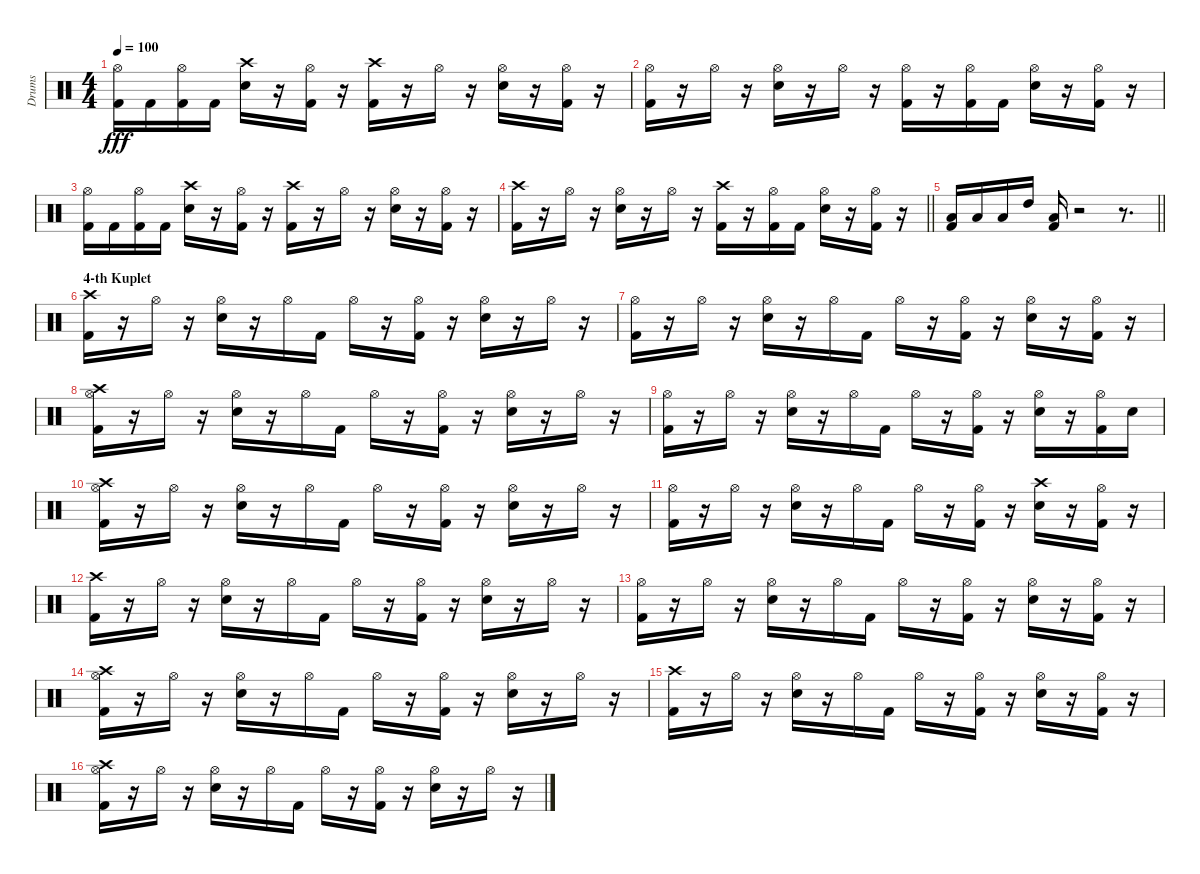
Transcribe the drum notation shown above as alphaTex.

\track ("Drums" "Drums") {instrument percussion}
\staff {score}
\articulation defaults
\ts (4 4)
\tempo 100
\clef neutral
\ks c
("Kick (hit) 2" "Hi-Hat (open)").16{dy fff} "Kick (hit) 2".16 ("Hi-Hat (open)" "Kick (hit) 2").16 "Kick (hit) 2".16 ("Snare (hit) 2" "Crash high (hit)").16 r.16 ("Hi-Hat (open)" "Kick (hit) 2").16 r.16 ("Crash high (hit)" "Kick (hit) 2").16 r.16 "Hi-Hat (open)".16 r.16 ("Hi-Hat (open)" "Snare (hit) 2").16 r.16 ("Hi-Hat (open)" "Kick (hit) 2").16 r.16 |
("Hi-Hat (open)" "Kick (hit) 2").16 r.16 "Hi-Hat (open)".16 r.16 ("Hi-Hat (open)" "Snare (hit) 2").16 r.16 "Hi-Hat (open)".16 r.16 ("Hi-Hat (open)" "Kick (hit) 2").16 r.16 ("Hi-Hat (open)" "Kick (hit) 2").16 "Kick (hit) 2".16 ("Hi-Hat (open)" "Snare (hit) 2").16 r.16 ("Hi-Hat (open)" "Kick (hit) 2").16 r.16 |
("Kick (hit) 2" "Hi-Hat (open)").16 "Kick (hit) 2".16 ("Hi-Hat (open)" "Kick (hit) 2").16 "Kick (hit) 2".16 ("Snare (hit) 2" "Crash high (hit)").16 r.16 ("Hi-Hat (open)" "Kick (hit) 2").16 r.16 ("Crash high (hit)" "Kick (hit) 2").16 r.16 "Hi-Hat (open)".16 r.16 ("Hi-Hat (open)" "Snare (hit) 2").16 r.16 ("Hi-Hat (open)" "Kick (hit) 2").16 r.16 |
\barLineRight lightlight
("Crash high (hit)" "Kick (hit) 2").16 r.16 "Hi-Hat (open)".16 r.16 ("Hi-Hat (open)" "Snare (hit) 2").16 r.16 "Hi-Hat (open)".16 r.16 ("Crash high (hit)" "Kick (hit) 2").16 r.16 ("Hi-Hat (open)" "Kick (hit) 2").16 "Kick (hit) 2".16 ("Hi-Hat (open)" "Snare (hit) 2").16 r.16 ("Hi-Hat (open)" "Kick (hit) 2").16 r.16 |
\barLineRight lightlight
("Kick (hit) 2" "Low Tom (hit)").16 "Low Tom (hit)".16 "Low Tom (hit)".16 "High Tom (hit)".16 ("Low Tom (hit)" "Kick (hit) 2").16 r.2 r.8{d} |
\section ("" "4-th Kuplet")
("Kick (hit) 2" "Crash high (hit)").16 r.16 "Hi-Hat (open)".16 r.16 ("Snare (hit) 2" "Hi-Hat (open)").16 r.16 "Hi-Hat (open)".16 "Kick (hit) 2".16 "Hi-Hat (open)".16 r.16 ("Kick (hit) 2" "Hi-Hat (open)").16 r.16 ("Hi-Hat (open)" "Snare (hit) 2").16 r.16 "Hi-Hat (open)".16 r.16 |
("Kick (hit) 2" "Hi-Hat (open)").16 r.16 "Hi-Hat (open)".16 r.16 ("Snare (hit) 2" "Hi-Hat (open)").16 r.16 "Hi-Hat (open)".16 "Kick (hit) 2".16 "Hi-Hat (open)".16 r.16 ("Kick (hit) 2" "Hi-Hat (open)").16 r.16 ("Snare (hit) 2" "Hi-Hat (open)").16 r.16 ("Hi-Hat (open)" "Kick (hit) 2").16 r.16 |
("Hi-Hat (open)" "Kick (hit) 2" "Crash high (hit)").16 r.16 "Hi-Hat (open)".16 r.16 ("Hi-Hat (open)" "Snare (hit) 2").16 r.16 "Hi-Hat (open)".16 "Kick (hit) 2".16 "Hi-Hat (open)".16 r.16 ("Kick (hit) 2" "Hi-Hat (open)").16 r.16 ("Hi-Hat (open)" "Snare (hit) 2").16 r.16 "Hi-Hat (open)".16 r.16 |
("Hi-Hat (open)" "Kick (hit) 2").16 r.16 "Hi-Hat (open)".16 r.16 ("Hi-Hat (open)" "Snare (hit) 2").16 r.16 "Hi-Hat (open)".16 "Kick (hit) 2".16 "Hi-Hat (open)".16 r.16 ("Kick (hit) 2" "Hi-Hat (open)").16 r.16 ("Hi-Hat (open)" "Snare (hit) 2").16 r.16 ("Hi-Hat (open)" "Kick (hit) 2").16 "Snare (hit) 2".16 |
("Kick (hit) 2" "Crash high (hit)" "Hi-Hat (open)").16 r.16 "Hi-Hat (open)".16 r.16 ("Snare (hit) 2" "Hi-Hat (open)").16 r.16 "Hi-Hat (open)".16 "Kick (hit) 2".16 "Hi-Hat (open)".16 r.16 ("Kick (hit) 2" "Hi-Hat (open)").16 r.16 ("Snare (hit) 2" "Hi-Hat (open)").16 r.16 "Hi-Hat (open)".16 r.16 |
("Kick (hit) 2" "Hi-Hat (open)").16 r.16 "Hi-Hat (open)".16 r.16 ("Snare (hit) 2" "Hi-Hat (open)").16 r.16 "Hi-Hat (open)".16 "Kick (hit) 2".16 "Hi-Hat (open)".16 r.16 ("Kick (hit) 2" "Hi-Hat (open)").16 r.16 ("Snare (hit) 2" "Crash high (hit)").16 r.16 ("Hi-Hat (open)" "Kick (hit) 2").16 r.16 |
("Kick (hit) 2" "Crash high (hit)").16 r.16 "Hi-Hat (open)".16 r.16 ("Snare (hit) 2" "Hi-Hat (open)").16 r.16 "Hi-Hat (open)".16 "Kick (hit) 2".16 "Hi-Hat (open)".16 r.16 ("Kick (hit) 2" "Hi-Hat (open)").16 r.16 ("Hi-Hat (open)" "Snare (hit) 2").16 r.16 "Hi-Hat (open)".16 r.16 |
("Kick (hit) 2" "Hi-Hat (open)").16 r.16 "Hi-Hat (open)".16 r.16 ("Snare (hit) 2" "Hi-Hat (open)").16 r.16 "Hi-Hat (open)".16 "Kick (hit) 2".16 "Hi-Hat (open)".16 r.16 ("Kick (hit) 2" "Hi-Hat (open)").16 r.16 ("Snare (hit) 2" "Hi-Hat (open)").16 r.16 ("Hi-Hat (open)" "Kick (hit) 2").16 r.16 |
("Hi-Hat (open)" "Kick (hit) 2" "Crash high (hit)").16 r.16 "Hi-Hat (open)".16 r.16 ("Hi-Hat (open)" "Snare (hit) 2").16 r.16 "Hi-Hat (open)".16 "Kick (hit) 2".16 "Hi-Hat (open)".16 r.16 ("Kick (hit) 2" "Hi-Hat (open)").16 r.16 ("Hi-Hat (open)" "Snare (hit) 2").16 r.16 "Hi-Hat (open)".16 r.16 |
("Crash high (hit)" "Kick (hit) 2").16 r.16 "Hi-Hat (open)".16 r.16 ("Hi-Hat (open)" "Snare (hit) 2").16 r.16 "Hi-Hat (open)".16 "Kick (hit) 2".16 "Hi-Hat (open)".16 r.16 ("Kick (hit) 2" "Hi-Hat (open)").16 r.16 ("Hi-Hat (open)" "Snare (hit) 2").16 r.16 ("Hi-Hat (open)" "Kick (hit) 2").16 r.16 |
("Kick (hit) 2" "Crash high (hit)" "Hi-Hat (open)").16 r.16 "Hi-Hat (open)".16 r.16 ("Snare (hit) 2" "Hi-Hat (open)").16 r.16 "Hi-Hat (open)".16 "Kick (hit) 2".16 "Hi-Hat (open)".16 r.16 ("Kick (hit) 2" "Hi-Hat (open)").16 r.16 ("Snare (hit) 2" "Hi-Hat (open)").16 r.16 "Hi-Hat (open)".16 r.16
